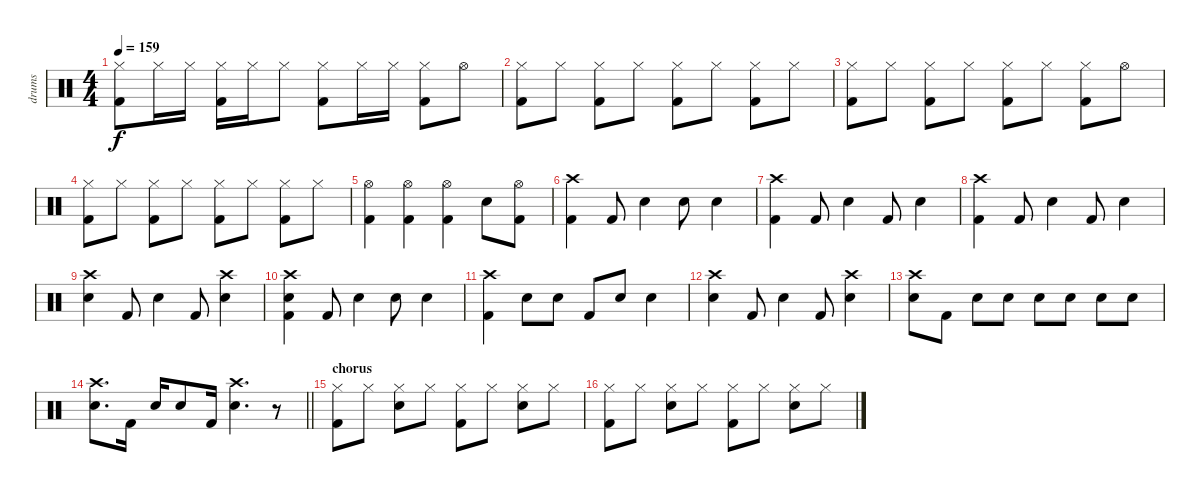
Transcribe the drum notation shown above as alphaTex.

\track ("drums" "drums") {instrument percussion}
\staff {score}
\articulation defaults
\ts (4 4)
\tempo 159
\clef neutral
\ks c
("Hi-Hat (closed)" "Kick (hit) 2").8{dy f} "Hi-Hat (closed)".16 "Hi-Hat (closed)".16 ("Hi-Hat (closed)" "Kick (hit) 2").16 "Hi-Hat (closed)".16 "Hi-Hat (closed)".8 ("Hi-Hat (closed)" "Kick (hit) 2").8 "Hi-Hat (closed)".16 "Hi-Hat (closed)".16 ("Hi-Hat (closed)" "Kick (hit) 2").8 "Hi-Hat (open)".8 |
("Hi-Hat (closed)" "Kick (hit) 2").8 "Hi-Hat (closed)".8 ("Hi-Hat (closed)" "Kick (hit) 2").8 "Hi-Hat (closed)".8 ("Hi-Hat (closed)" "Kick (hit) 2").8 "Hi-Hat (closed)".8 ("Hi-Hat (closed)" "Kick (hit) 2").8 "Hi-Hat (closed)".8 |
("Hi-Hat (closed)" "Kick (hit) 2").8 "Hi-Hat (closed)".8 ("Hi-Hat (closed)" "Kick (hit) 2").8 "Hi-Hat (closed)".8 ("Hi-Hat (closed)" "Kick (hit) 2").8 "Hi-Hat (closed)".8 ("Hi-Hat (closed)" "Kick (hit) 2").8 "Hi-Hat (open)".8 |
("Hi-Hat (closed)" "Kick (hit) 2").8 "Hi-Hat (closed)".8 ("Hi-Hat (closed)" "Kick (hit) 2").8 "Hi-Hat (closed)".8 ("Hi-Hat (closed)" "Kick (hit) 2").8 "Hi-Hat (closed)".8 ("Hi-Hat (closed)" "Kick (hit) 2").8 "Hi-Hat (closed)".8 |
("Hi-Hat (open)" "Kick (hit) 2").4 ("Hi-Hat (open)" "Kick (hit) 2").4 ("Hi-Hat (open)" "Kick (hit) 2").4 "Electric Snare (hit)".8 ("Hi-Hat (open)" "Kick (hit) 2").8 |
("Crash high (hit)" "Kick (hit) 2").4 "Kick (hit) 2".8 "Electric Snare (hit)".4 "Electric Snare (hit)".8 "Electric Snare (hit)".4 |
("Crash high (hit)" "Kick (hit) 2").4 "Kick (hit) 2".8 "Electric Snare (hit)".4 "Kick (hit) 2".8 "Electric Snare (hit)".4 |
("Crash high (hit)" "Kick (hit) 2").4 "Kick (hit) 2".8 "Electric Snare (hit)".4 "Kick (hit) 2".8 "Electric Snare (hit)".4 |
("Crash high (hit)" "Electric Snare (hit)").4 "Kick (hit) 2".8 "Electric Snare (hit)".4 "Kick (hit) 2".8 ("Crash high (hit)" "Electric Snare (hit)").4 |
("Crash high (hit)" "Electric Snare (hit)" "Kick (hit) 2").4 "Kick (hit) 2".8 "Electric Snare (hit)".4 "Electric Snare (hit)".8 "Electric Snare (hit)".4 |
("Crash high (hit)" "Kick (hit) 2").4 "Electric Snare (hit)".8 "Electric Snare (hit)".8 "Kick (hit) 2".8 "Electric Snare (hit)".8 "Electric Snare (hit)".4 |
("Crash high (hit)" "Electric Snare (hit)").4 "Kick (hit) 2".8 "Electric Snare (hit)".4 "Kick (hit) 2".8 ("Crash high (hit)" "Electric Snare (hit)").4 |
("Crash high (hit)" "Electric Snare (hit)").8 "Kick (hit) 2".8 "Electric Snare (hit)".8 "Electric Snare (hit)".8 "Electric Snare (hit)".8 "Electric Snare (hit)".8 "Electric Snare (hit)".8 "Electric Snare (hit)".8 |
\barLineRight lightlight
("Crash high (hit)" "Electric Snare (hit)").8{d} "Kick (hit) 2".16 "Electric Snare (hit)".16 "Electric Snare (hit)".8 "Kick (hit) 2".16 ("Crash high (hit)" "Electric Snare (hit)").4{d} r.8 |
\section ("" "chorus")
("Hi-Hat (closed)" "Kick (hit) 2").8 "Hi-Hat (closed)".8 ("Hi-Hat (closed)" "Electric Snare (hit)").8 "Hi-Hat (closed)".8 ("Hi-Hat (closed)" "Kick (hit) 2").8 "Hi-Hat (closed)".8 ("Hi-Hat (closed)" "Electric Snare (hit)").8 "Hi-Hat (closed)".8 |
("Hi-Hat (closed)" "Kick (hit) 2").8 "Hi-Hat (closed)".8 ("Hi-Hat (closed)" "Electric Snare (hit)").8 "Hi-Hat (closed)".8 ("Hi-Hat (closed)" "Kick (hit) 2").8 "Hi-Hat (closed)".8 ("Hi-Hat (closed)" "Electric Snare (hit)").8 "Hi-Hat (closed)".8
